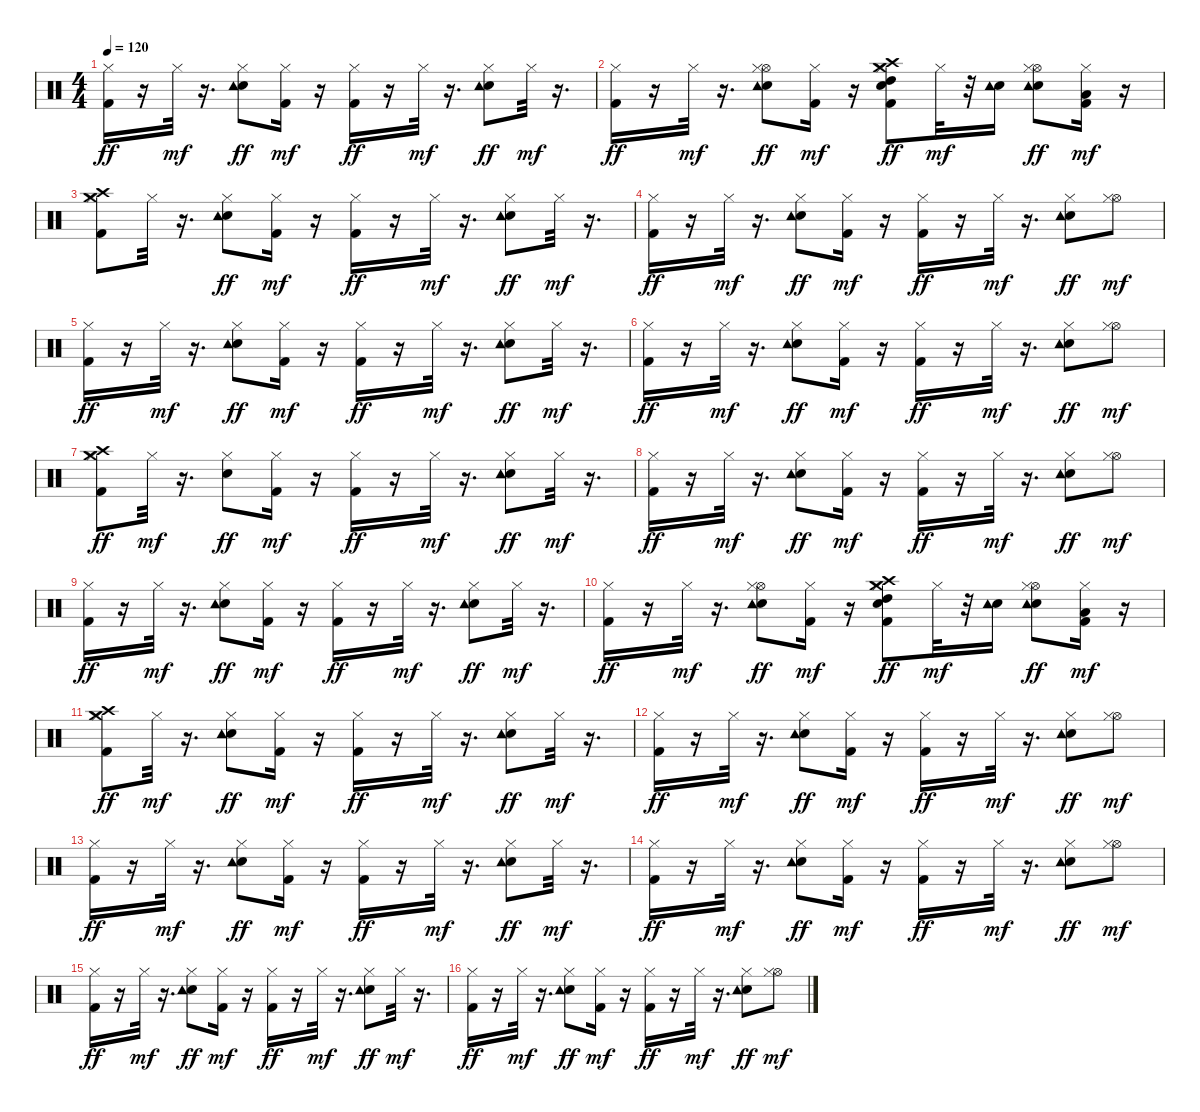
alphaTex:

\track "" {instrument percussion}
\staff {score}
\articulation defaults
\ts (4 4)
\tempo 120
\clef neutral
\ks c
("Hi-Hat (closed)" "Kick (hit) 2").16{dy ff} r.16 "Hi-Hat (closed)".32{dy mf} r.16{d} ("Snare (hit) 2" "Tambourine (hit)" "Hi-Hat (closed)").8{dy ff} ("Hi-Hat (closed)" "Kick (hit) 2").16{dy mf} r.16 ("Hi-Hat (closed)" "Kick (hit) 2").16{dy ff} r.16 "Hi-Hat (closed)".32{dy mf} r.16{d} ("Snare (hit) 2" "Tambourine (hit)" "Hi-Hat (closed)").8{dy ff} "Hi-Hat (closed)".32{dy mf} r.16{d} |
("Hi-Hat (closed)" "Kick (hit) 2").16{dy ff} r.16 "Hi-Hat (closed)".32{dy mf} r.16{d} ("Hi-Hat (open)" "Snare (hit) 2" "Tambourine (hit)" "Hi-Hat (closed)").8{dy ff} ("Hi-Hat (closed)" "Kick (hit) 2").16{dy mf} r.16 ("High Tom (hit)" "Snare (hit) 2" "Crash high (hit)" "Crash medium (hit)" "Hi-Hat (closed)" "Kick (hit) 2").8{dy ff} "Hi-Hat (closed)".32{dy mf} r.32 ("Snare (hit) 2" "Tambourine (hit)").16 ("Snare (hit) 2" "Tambourine (hit)" "Hi-Hat (open)" "Hi-Hat (closed)").8{dy ff} ("Low Floor Tom (hit)" "Hi-Hat (closed)" "Kick (hit) 2").16{dy mf} r.16 |
("Hi-Hat (closed)" "Crash medium (hit)" "Crash high (hit)" "Kick (hit) 2").8 "Hi-Hat (closed)".32 r.16{d} ("Snare (hit) 2" "Tambourine (hit)" "Hi-Hat (closed)").8{dy ff} ("Hi-Hat (closed)" "Kick (hit) 2").16{dy mf} r.16 ("Hi-Hat (closed)" "Kick (hit) 2").16{dy ff} r.16 "Hi-Hat (closed)".32{dy mf} r.16{d} ("Snare (hit) 2" "Tambourine (hit)" "Hi-Hat (closed)").8{dy ff} "Hi-Hat (closed)".32{dy mf} r.16{d} |
("Hi-Hat (closed)" "Kick (hit) 2").16{dy ff} r.16 "Hi-Hat (closed)".32{dy mf} r.16{d} ("Snare (hit) 2" "Tambourine (hit)" "Hi-Hat (closed)").8{dy ff} ("Hi-Hat (closed)" "Kick (hit) 2").16{dy mf} r.16 ("Hi-Hat (closed)" "Kick (hit) 2").16{dy ff} r.16 "Hi-Hat (closed)".32{dy mf} r.16{d} ("Snare (hit) 2" "Tambourine (hit)" "Hi-Hat (closed)").8{dy ff} ("Hi-Hat (open)" "Hi-Hat (closed)").8{dy mf} |
("Hi-Hat (closed)" "Kick (hit) 2").16{dy ff} r.16 "Hi-Hat (closed)".32{dy mf} r.16{d} ("Snare (hit) 2" "Tambourine (hit)" "Hi-Hat (closed)").8{dy ff} ("Hi-Hat (closed)" "Kick (hit) 2").16{dy mf} r.16 ("Hi-Hat (closed)" "Kick (hit) 2").16{dy ff} r.16 "Hi-Hat (closed)".32{dy mf} r.16{d} ("Snare (hit) 2" "Tambourine (hit)" "Hi-Hat (closed)").8{dy ff} "Hi-Hat (closed)".32{dy mf} r.16{d} |
("Hi-Hat (closed)" "Kick (hit) 2").16{dy ff} r.16 "Hi-Hat (closed)".32{dy mf} r.16{d} ("Snare (hit) 2" "Tambourine (hit)" "Hi-Hat (closed)").8{dy ff} ("Hi-Hat (closed)" "Kick (hit) 2").16{dy mf} r.16 ("Hi-Hat (closed)" "Kick (hit) 2").16{dy ff} r.16 "Hi-Hat (closed)".32{dy mf} r.16{d} ("Snare (hit) 2" "Tambourine (hit)" "Hi-Hat (closed)").8{dy ff} ("Hi-Hat (open)" "Hi-Hat (closed)").8{dy mf} |
("Crash medium (hit)" "Crash high (hit)" "Hi-Hat (closed)" "Kick (hit) 2").8{dy ff} "Hi-Hat (closed)".32{dy mf} r.16{d} ("Snare (hit) 2" "Hi-Hat (closed)").8{dy ff} ("Hi-Hat (closed)" "Kick (hit) 2").16{dy mf} r.16 ("Hi-Hat (closed)" "Kick (hit) 2").16{dy ff} r.16 "Hi-Hat (closed)".32{dy mf} r.16{d} ("Snare (hit) 2" "Tambourine (hit)" "Hi-Hat (closed)").8{dy ff} "Hi-Hat (closed)".32{dy mf} r.16{d} |
("Hi-Hat (closed)" "Kick (hit) 2").16{dy ff} r.16 "Hi-Hat (closed)".32{dy mf} r.16{d} ("Snare (hit) 2" "Tambourine (hit)" "Hi-Hat (closed)").8{dy ff} ("Hi-Hat (closed)" "Kick (hit) 2").16{dy mf} r.16 ("Hi-Hat (closed)" "Kick (hit) 2").16{dy ff} r.16 "Hi-Hat (closed)".32{dy mf} r.16{d} ("Snare (hit) 2" "Tambourine (hit)" "Hi-Hat (closed)").8{dy ff} ("Hi-Hat (open)" "Hi-Hat (closed)").8{dy mf} |
("Hi-Hat (closed)" "Kick (hit) 2").16{dy ff} r.16 "Hi-Hat (closed)".32{dy mf} r.16{d} ("Snare (hit) 2" "Tambourine (hit)" "Hi-Hat (closed)").8{dy ff} ("Hi-Hat (closed)" "Kick (hit) 2").16{dy mf} r.16 ("Hi-Hat (closed)" "Kick (hit) 2").16{dy ff} r.16 "Hi-Hat (closed)".32{dy mf} r.16{d} ("Snare (hit) 2" "Tambourine (hit)" "Hi-Hat (closed)").8{dy ff} "Hi-Hat (closed)".32{dy mf} r.16{d} |
("Hi-Hat (closed)" "Kick (hit) 2").16{dy ff} r.16 "Hi-Hat (closed)".32{dy mf} r.16{d} ("Hi-Hat (open)" "Snare (hit) 2" "Tambourine (hit)" "Hi-Hat (closed)").8{dy ff} ("Hi-Hat (closed)" "Kick (hit) 2").16{dy mf} r.16 ("High Tom (hit)" "Snare (hit) 2" "Crash high (hit)" "Crash medium (hit)" "Hi-Hat (closed)" "Kick (hit) 2").8{dy ff} "Hi-Hat (closed)".32{dy mf} r.32 ("Snare (hit) 2" "Tambourine (hit)").16 ("Snare (hit) 2" "Tambourine (hit)" "Hi-Hat (open)" "Hi-Hat (closed)").8{dy ff} ("Low Floor Tom (hit)" "Hi-Hat (closed)" "Kick (hit) 2").16{dy mf} r.16 |
("Crash medium (hit)" "Crash high (hit)" "Hi-Hat (closed)" "Kick (hit) 2").8{dy ff} "Hi-Hat (closed)".32{dy mf} r.16{d} ("Snare (hit) 2" "Tambourine (hit)" "Hi-Hat (closed)").8{dy ff} ("Hi-Hat (closed)" "Kick (hit) 2").16{dy mf} r.16 ("Hi-Hat (closed)" "Kick (hit) 2").16{dy ff} r.16 "Hi-Hat (closed)".32{dy mf} r.16{d} ("Snare (hit) 2" "Tambourine (hit)" "Hi-Hat (closed)").8{dy ff} "Hi-Hat (closed)".32{dy mf} r.16{d} |
("Hi-Hat (closed)" "Kick (hit) 2").16{dy ff} r.16 "Hi-Hat (closed)".32{dy mf} r.16{d} ("Snare (hit) 2" "Tambourine (hit)" "Hi-Hat (closed)").8{dy ff} ("Hi-Hat (closed)" "Kick (hit) 2").16{dy mf} r.16 ("Hi-Hat (closed)" "Kick (hit) 2").16{dy ff} r.16 "Hi-Hat (closed)".32{dy mf} r.16{d} ("Snare (hit) 2" "Tambourine (hit)" "Hi-Hat (closed)").8{dy ff} ("Hi-Hat (open)" "Hi-Hat (closed)").8{dy mf} |
("Hi-Hat (closed)" "Kick (hit) 2").16{dy ff} r.16 "Hi-Hat (closed)".32{dy mf} r.16{d} ("Snare (hit) 2" "Tambourine (hit)" "Hi-Hat (closed)").8{dy ff} ("Hi-Hat (closed)" "Kick (hit) 2").16{dy mf} r.16 ("Hi-Hat (closed)" "Kick (hit) 2").16{dy ff} r.16 "Hi-Hat (closed)".32{dy mf} r.16{d} ("Snare (hit) 2" "Tambourine (hit)" "Hi-Hat (closed)").8{dy ff} "Hi-Hat (closed)".32{dy mf} r.16{d} |
("Hi-Hat (closed)" "Kick (hit) 2").16{dy ff} r.16 "Hi-Hat (closed)".32{dy mf} r.16{d} ("Snare (hit) 2" "Tambourine (hit)" "Hi-Hat (closed)").8{dy ff} ("Hi-Hat (closed)" "Kick (hit) 2").16{dy mf} r.16 ("Hi-Hat (closed)" "Kick (hit) 2").16{dy ff} r.16 "Hi-Hat (closed)".32{dy mf} r.16{d} ("Snare (hit) 2" "Tambourine (hit)" "Hi-Hat (closed)").8{dy ff} ("Hi-Hat (open)" "Hi-Hat (closed)").8{dy mf} |
("Hi-Hat (closed)" "Kick (hit) 2").16{dy ff} r.16 "Hi-Hat (closed)".32{dy mf} r.16{d} ("Snare (hit) 2" "Tambourine (hit)" "Hi-Hat (closed)").8{dy ff} ("Hi-Hat (closed)" "Kick (hit) 2").16{dy mf} r.16 ("Hi-Hat (closed)" "Kick (hit) 2").16{dy ff} r.16 "Hi-Hat (closed)".32{dy mf} r.16{d} ("Snare (hit) 2" "Tambourine (hit)" "Hi-Hat (closed)").8{dy ff} "Hi-Hat (closed)".32{dy mf} r.16{d} |
("Hi-Hat (closed)" "Kick (hit) 2").16{dy ff} r.16 "Hi-Hat (closed)".32{dy mf} r.16{d} ("Snare (hit) 2" "Tambourine (hit)" "Hi-Hat (closed)").8{dy ff} ("Hi-Hat (closed)" "Kick (hit) 2").16{dy mf} r.16 ("Hi-Hat (closed)" "Kick (hit) 2").16{dy ff} r.16 "Hi-Hat (closed)".32{dy mf} r.16{d} ("Snare (hit) 2" "Tambourine (hit)" "Hi-Hat (closed)").8{dy ff} ("Hi-Hat (open)" "Hi-Hat (closed)").8{dy mf}
